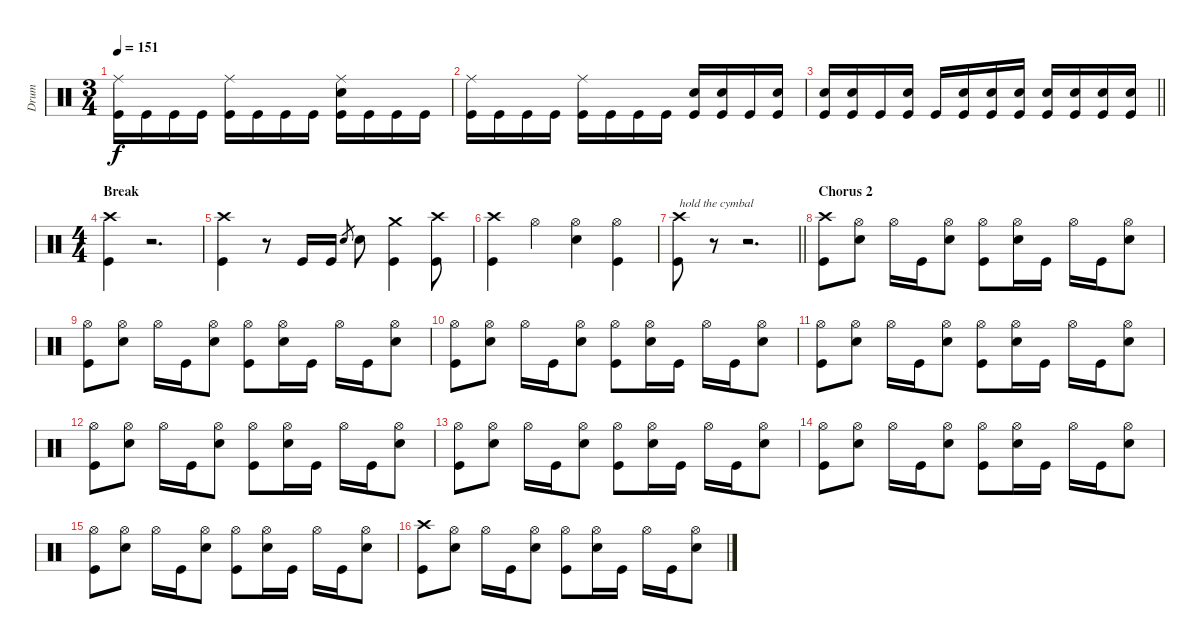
\track ("Drum" "Drum") {instrument percussion}
\staff {score}
\articulation defaults
\ts (3 4)
\tempo 151
\clef neutral
\ks c
("Ride (middle)" "Kick (hit)").16{dy f} "Kick (hit)".16 "Kick (hit)".16 "Kick (hit)".16 ("Ride (middle)" "Kick (hit)").16 "Kick (hit)".16 "Kick (hit)".16 "Kick (hit)".16 ("Ride (middle)" "Kick (hit)" "Snare (hit) 2").16 "Kick (hit)".16 "Kick (hit)".16 "Kick (hit)".16 |
("Ride (middle)" "Kick (hit)").16 "Kick (hit)".16 "Kick (hit)".16 "Kick (hit)".16 ("Ride (middle)" "Kick (hit)").16 "Kick (hit)".16 "Kick (hit)".16 "Kick (hit)".16 ("Kick (hit)" "Snare (hit) 2").16 ("Kick (hit)" "Snare (hit) 2").16 "Kick (hit)".16 ("Kick (hit)" "Snare (hit) 2").16 |
\barLineRight lightlight
("Snare (hit) 2" "Kick (hit)").16 ("Snare (hit) 2" "Kick (hit)").16 "Kick (hit)".16 ("Snare (hit) 2" "Kick (hit)").16 "Kick (hit)".16 ("Snare (hit) 2" "Kick (hit)").16 ("Snare (hit) 2" "Kick (hit)").16 ("Snare (hit) 2" "Kick (hit)").16 ("Snare (hit) 2" "Kick (hit)").16 ("Snare (hit) 2" "Kick (hit)").16 ("Snare (hit) 2" "Kick (hit)").16 ("Snare (hit) 2" "Kick (hit)").16 |
\ts (4 4)
\section ("" "Break")
("Crash high (hit)" "Kick (hit)").4 r.2{d} |
("Crash high (hit)" "Kick (hit)").4 r.8 "Kick (hit)".16 "Kick (hit)".16 "Snare (hit) 2".8{gr} "Snare (hit) 2".8 ("Crash medium (hit)" "Kick (hit)").4 ("Crash high (hit)" "Kick (hit)").8 |
("Crash high (hit)" "Kick (hit)").4 "Hi-Hat (open)".4 ("Hi-Hat (open)" "Snare (hit) 2").4 ("Hi-Hat (open)" "Kick (hit)").4 |
\barLineRight lightlight
("Crash high (hit)" "Kick (hit)").8{txt "hold the cymbal"} r.8 r.2{d} |
\section ("" "Chorus 2")
("Crash high (hit)" "Kick (hit)").8 ("Hi-Hat (open)" "Snare (hit) 2").8 "Hi-Hat (open)".16 "Kick (hit)".16 ("Hi-Hat (open)" "Snare (hit) 2").8 ("Hi-Hat (open)" "Kick (hit)").8 ("Hi-Hat (open)" "Snare (hit) 2").16 "Kick (hit)".16 "Hi-Hat (open)".16 "Kick (hit)".16 ("Hi-Hat (open)" "Snare (hit) 2").8 |
("Hi-Hat (open)" "Kick (hit)").8 ("Hi-Hat (open)" "Snare (hit) 2").8 "Hi-Hat (open)".16 "Kick (hit)".16 ("Hi-Hat (open)" "Snare (hit) 2").8 ("Hi-Hat (open)" "Kick (hit)").8 ("Hi-Hat (open)" "Snare (hit) 2").16 "Kick (hit)".16 "Hi-Hat (open)".16 "Kick (hit)".16 ("Hi-Hat (open)" "Snare (hit) 2").8 |
("Hi-Hat (open)" "Kick (hit)").8 ("Hi-Hat (open)" "Snare (hit) 2").8 "Hi-Hat (open)".16 "Kick (hit)".16 ("Hi-Hat (open)" "Snare (hit) 2").8 ("Hi-Hat (open)" "Kick (hit)").8 ("Hi-Hat (open)" "Snare (hit) 2").16 "Kick (hit)".16 "Hi-Hat (open)".16 "Kick (hit)".16 ("Hi-Hat (open)" "Snare (hit) 2").8 |
("Hi-Hat (open)" "Kick (hit)").8 ("Hi-Hat (open)" "Snare (hit) 2").8 "Hi-Hat (open)".16 "Kick (hit)".16 ("Hi-Hat (open)" "Snare (hit) 2").8 ("Hi-Hat (open)" "Kick (hit)").8 ("Hi-Hat (open)" "Snare (hit) 2").16 "Kick (hit)".16 "Hi-Hat (open)".16 "Kick (hit)".16 ("Hi-Hat (open)" "Snare (hit) 2").8 |
("Hi-Hat (open)" "Kick (hit)").8 ("Hi-Hat (open)" "Snare (hit) 2").8 "Hi-Hat (open)".16 "Kick (hit)".16 ("Hi-Hat (open)" "Snare (hit) 2").8 ("Hi-Hat (open)" "Kick (hit)").8 ("Hi-Hat (open)" "Snare (hit) 2").16 "Kick (hit)".16 "Hi-Hat (open)".16 "Kick (hit)".16 ("Hi-Hat (open)" "Snare (hit) 2").8 |
("Hi-Hat (open)" "Kick (hit)").8 ("Hi-Hat (open)" "Snare (hit) 2").8 "Hi-Hat (open)".16 "Kick (hit)".16 ("Hi-Hat (open)" "Snare (hit) 2").8 ("Hi-Hat (open)" "Kick (hit)").8 ("Hi-Hat (open)" "Snare (hit) 2").16 "Kick (hit)".16 "Hi-Hat (open)".16 "Kick (hit)".16 ("Hi-Hat (open)" "Snare (hit) 2").8 |
("Hi-Hat (open)" "Kick (hit)").8 ("Hi-Hat (open)" "Snare (hit) 2").8 "Hi-Hat (open)".16 "Kick (hit)".16 ("Hi-Hat (open)" "Snare (hit) 2").8 ("Hi-Hat (open)" "Kick (hit)").8 ("Hi-Hat (open)" "Snare (hit) 2").16 "Kick (hit)".16 "Hi-Hat (open)".16 "Kick (hit)".16 ("Hi-Hat (open)" "Snare (hit) 2").8 |
("Hi-Hat (open)" "Kick (hit)").8 ("Hi-Hat (open)" "Snare (hit) 2").8 "Hi-Hat (open)".16 "Kick (hit)".16 ("Hi-Hat (open)" "Snare (hit) 2").8 ("Hi-Hat (open)" "Kick (hit)").8 ("Hi-Hat (open)" "Snare (hit) 2").16 "Kick (hit)".16 "Hi-Hat (open)".16 "Kick (hit)".16 ("Hi-Hat (open)" "Snare (hit) 2").8 |
("Crash high (hit)" "Kick (hit)").8 ("Hi-Hat (open)" "Snare (hit) 2").8 "Hi-Hat (open)".16 "Kick (hit)".16 ("Hi-Hat (open)" "Snare (hit) 2").8 ("Hi-Hat (open)" "Kick (hit)").8 ("Hi-Hat (open)" "Snare (hit) 2").16 "Kick (hit)".16 "Hi-Hat (open)".16 "Kick (hit)".16 ("Hi-Hat (open)" "Snare (hit) 2").8
